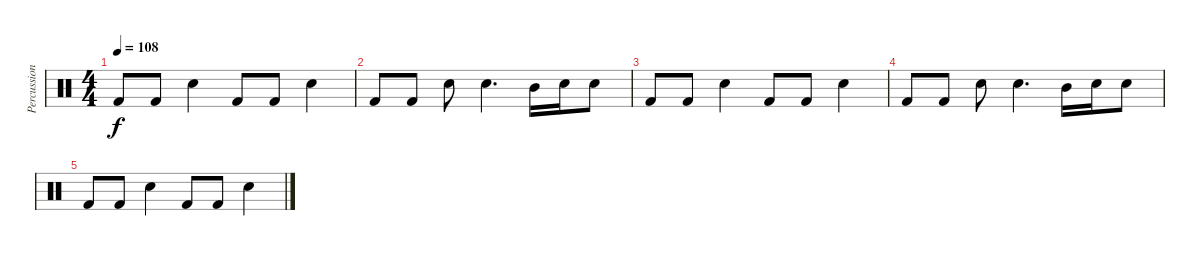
\track ("Percussion" "Percussion") {instrument percussion}
\staff {score}
\articulation defaults
\ts (4 4)
\tempo 108
\clef neutral
\ks c "Kick (hit) 2".8{dy f} "Kick (hit) 2".8 "Snare (hit) 2".4 "Kick (hit) 2".8 "Kick (hit) 2".8 "Snare (hit) 2".4
|
"Kick (hit) 2".8 "Kick (hit) 2".8 "Snare (hit) 2".8 "Snare (hit) 2".4{d} "Mid Tom (hit)".16 "Snare (hit) 2".16 "Snare (hit) 2".8 |
"Kick (hit) 2".8 "Kick (hit) 2".8 "Snare (hit) 2".4 "Kick (hit) 2".8 "Kick (hit) 2".8 "Snare (hit) 2".4 |
"Kick (hit) 2".8 "Kick (hit) 2".8 "Snare (hit) 2".8 "Snare (hit) 2".4{d} "Mid Tom (hit)".16 "Snare (hit) 2".16 "Snare (hit) 2".8 |
"Kick (hit) 2".8 "Kick (hit) 2".8 "Snare (hit) 2".4 "Kick (hit) 2".8 "Kick (hit) 2".8 "Snare (hit) 2".4
